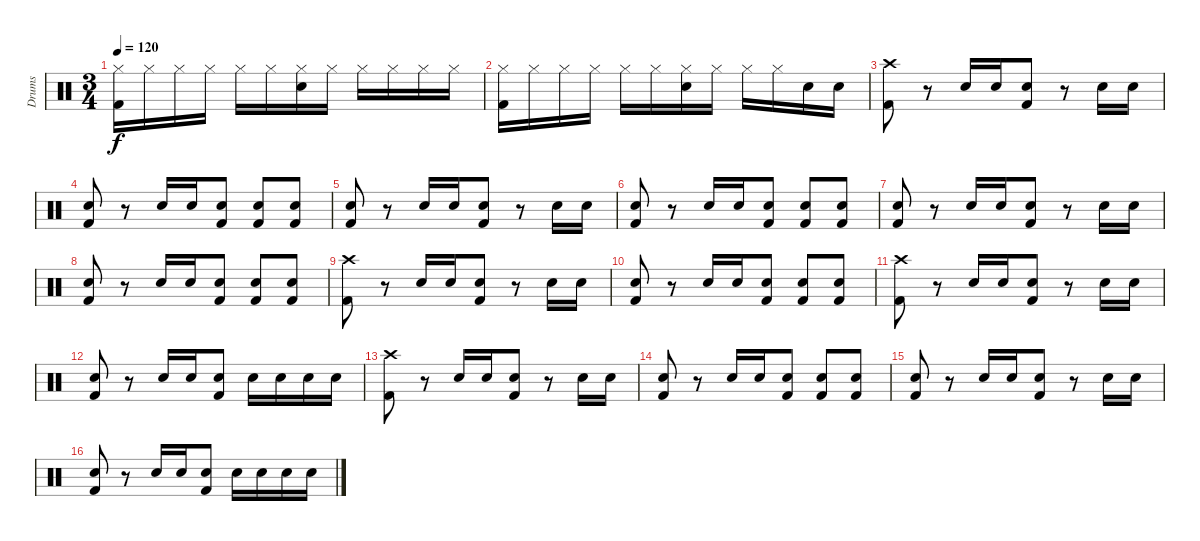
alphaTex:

\track ("Drums" "Drums") {instrument percussion}
\staff {score}
\articulation defaults
\ts (3 4)
\tempo 120
\clef neutral
\ks c
("Hi-Hat (closed)" "Kick (hit) 2").16{dy f} "Hi-Hat (closed)".16 "Hi-Hat (closed)".16 "Hi-Hat (closed)".16 "Hi-Hat (closed)".16 "Hi-Hat (closed)".16 ("Electric Snare (hit)" "Hi-Hat (closed)").16 "Hi-Hat (closed)".16 "Hi-Hat (closed)".16 "Hi-Hat (closed)".16 "Hi-Hat (closed)".16 "Hi-Hat (closed)".16 |
("Hi-Hat (closed)" "Kick (hit) 2").16 "Hi-Hat (closed)".16 "Hi-Hat (closed)".16 "Hi-Hat (closed)".16 "Hi-Hat (closed)".16 "Hi-Hat (closed)".16 ("Electric Snare (hit)" "Hi-Hat (closed)").16 "Hi-Hat (closed)".16 "Hi-Hat (closed)".16 "Hi-Hat (closed)".16 "Electric Snare (hit)".16 "Electric Snare (hit)".16 |
("Crash high (hit)" "Kick (hit) 2").8 r.8 "Electric Snare (hit)".16 "Electric Snare (hit)".16 ("Electric Snare (hit)" "Kick (hit) 2").8 r.8 "Electric Snare (hit)".16 "Electric Snare (hit)".16 |
("Electric Snare (hit)" "Kick (hit) 2").8 r.8 "Electric Snare (hit)".16 "Electric Snare (hit)".16 ("Electric Snare (hit)" "Kick (hit) 2").8 ("Electric Snare (hit)" "Kick (hit) 2").8 ("Electric Snare (hit)" "Kick (hit) 2").8 |
("Electric Snare (hit)" "Kick (hit) 2").8 r.8 "Electric Snare (hit)".16 "Electric Snare (hit)".16 ("Electric Snare (hit)" "Kick (hit) 2").8 r.8 "Electric Snare (hit)".16 "Electric Snare (hit)".16 |
("Electric Snare (hit)" "Kick (hit) 2").8 r.8 "Electric Snare (hit)".16 "Electric Snare (hit)".16 ("Electric Snare (hit)" "Kick (hit) 2").8 ("Electric Snare (hit)" "Kick (hit) 2").8 ("Electric Snare (hit)" "Kick (hit) 2").8 |
("Electric Snare (hit)" "Kick (hit) 2").8 r.8 "Electric Snare (hit)".16 "Electric Snare (hit)".16 ("Electric Snare (hit)" "Kick (hit) 2").8 r.8 "Electric Snare (hit)".16 "Electric Snare (hit)".16 |
("Electric Snare (hit)" "Kick (hit) 2").8 r.8 "Electric Snare (hit)".16 "Electric Snare (hit)".16 ("Electric Snare (hit)" "Kick (hit) 2").8 ("Electric Snare (hit)" "Kick (hit) 2").8 ("Electric Snare (hit)" "Kick (hit) 2").8 |
("Crash high (hit)" "Kick (hit) 2").8 r.8 "Electric Snare (hit)".16 "Electric Snare (hit)".16 ("Electric Snare (hit)" "Kick (hit) 2").8 r.8 "Electric Snare (hit)".16 "Electric Snare (hit)".16 |
("Electric Snare (hit)" "Kick (hit) 2").8 r.8 "Electric Snare (hit)".16 "Electric Snare (hit)".16 ("Electric Snare (hit)" "Kick (hit) 2").8 ("Electric Snare (hit)" "Kick (hit) 2").8 ("Electric Snare (hit)" "Kick (hit) 2").8 |
("Crash high (hit)" "Kick (hit) 2").8 r.8 "Electric Snare (hit)".16 "Electric Snare (hit)".16 ("Electric Snare (hit)" "Kick (hit) 2").8 r.8 "Electric Snare (hit)".16 "Electric Snare (hit)".16 |
("Electric Snare (hit)" "Kick (hit) 2").8 r.8 "Electric Snare (hit)".16 "Electric Snare (hit)".16 ("Electric Snare (hit)" "Kick (hit) 2").8 "Electric Snare (hit)".16 "Electric Snare (hit)".16 "Electric Snare (hit)".16 "Electric Snare (hit)".16 |
("Crash high (hit)" "Kick (hit) 2").8 r.8 "Electric Snare (hit)".16 "Electric Snare (hit)".16 ("Electric Snare (hit)" "Kick (hit) 2").8 r.8 "Electric Snare (hit)".16 "Electric Snare (hit)".16 |
("Electric Snare (hit)" "Kick (hit) 2").8 r.8 "Electric Snare (hit)".16 "Electric Snare (hit)".16 ("Electric Snare (hit)" "Kick (hit) 2").8 ("Electric Snare (hit)" "Kick (hit) 2").8 ("Electric Snare (hit)" "Kick (hit) 2").8 |
("Electric Snare (hit)" "Kick (hit) 2").8 r.8 "Electric Snare (hit)".16 "Electric Snare (hit)".16 ("Electric Snare (hit)" "Kick (hit) 2").8 r.8 "Electric Snare (hit)".16 "Electric Snare (hit)".16 |
("Electric Snare (hit)" "Kick (hit) 2").8 r.8 "Electric Snare (hit)".16 "Electric Snare (hit)".16 ("Electric Snare (hit)" "Kick (hit) 2").8 "Electric Snare (hit)".16 "Electric Snare (hit)".16 "Electric Snare (hit)".16 "Electric Snare (hit)".16
